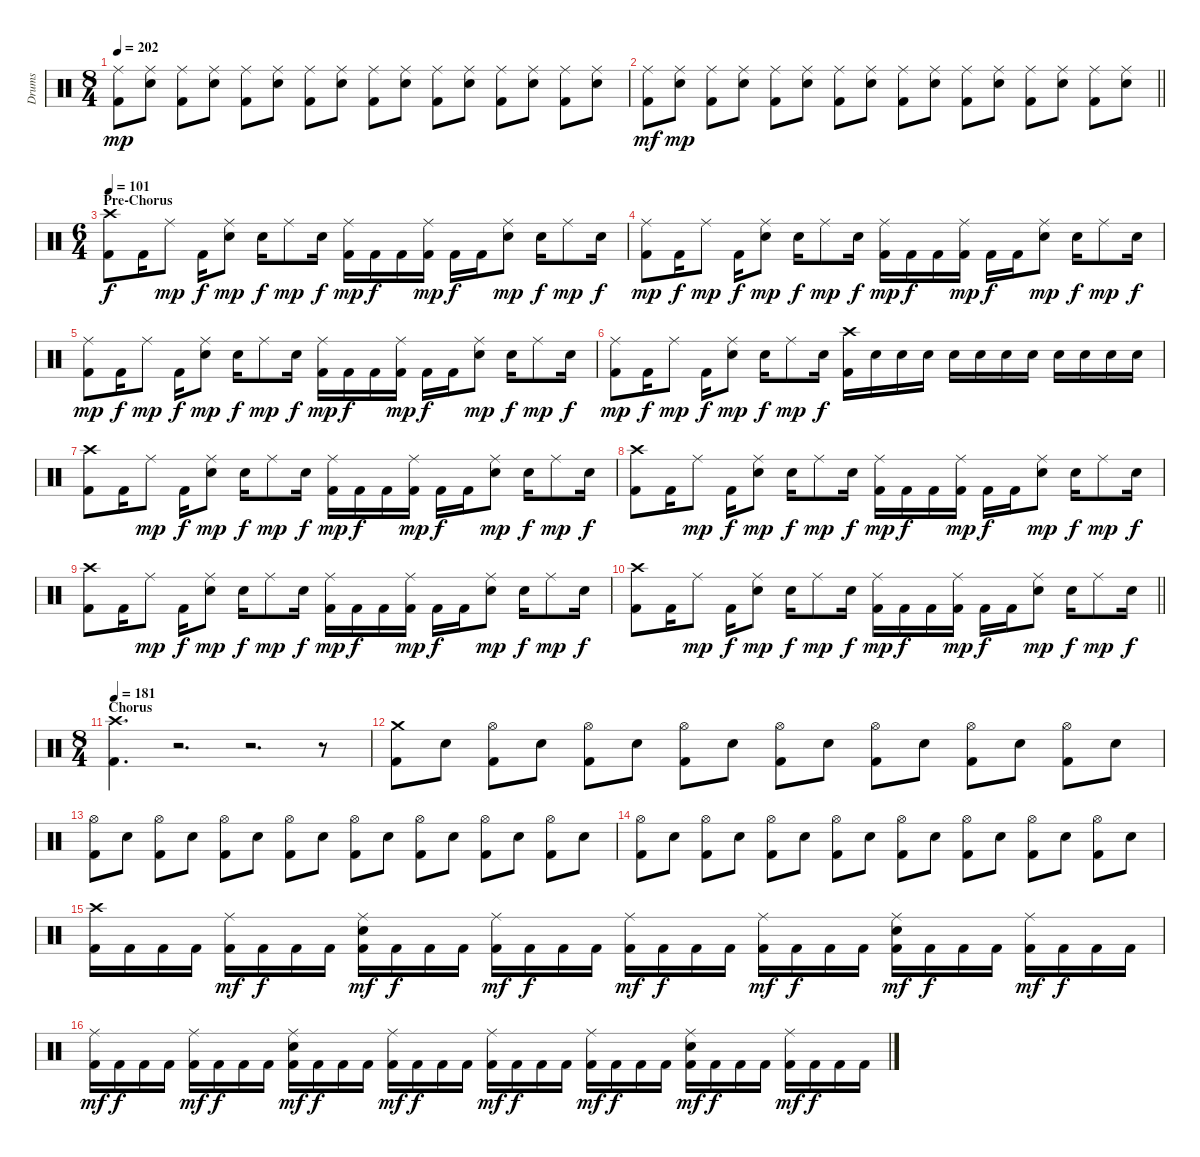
\track ("Drums" "Drums") {instrument percussion}
\staff {score}
\articulation defaults
\ts (8 4)
\tempo 202
\clef neutral
\ks c
("Ride (middle)" "Kick (hit) 2").8{dy mp} ("Ride (middle)" "Snare (hit) 2").8 ("Ride (middle)" "Kick (hit) 2").8 ("Ride (middle)" "Snare (hit) 2").8 ("Ride (middle)" "Kick (hit) 2").8 ("Ride (middle)" "Snare (hit) 2").8 ("Ride (middle)" "Kick (hit) 2").8 ("Ride (middle)" "Snare (hit) 2").8 ("Ride (middle)" "Kick (hit) 2").8 ("Ride (middle)" "Snare (hit) 2").8 ("Ride (middle)" "Kick (hit) 2").8 ("Ride (middle)" "Snare (hit) 2").8 ("Ride (middle)" "Kick (hit) 2").8 ("Ride (middle)" "Snare (hit) 2").8 ("Ride (middle)" "Kick (hit) 2").8 ("Ride (middle)" "Snare (hit) 2").8 |
\barLineRight lightlight
("Ride (middle)" "Kick (hit) 2").8{dy mf} ("Ride (middle)" "Snare (hit) 2").8{dy mp} ("Ride (middle)" "Kick (hit) 2").8 ("Ride (middle)" "Snare (hit) 2").8 ("Ride (middle)" "Kick (hit) 2").8 ("Ride (middle)" "Snare (hit) 2").8 ("Ride (middle)" "Kick (hit) 2").8 ("Ride (middle)" "Snare (hit) 2").8 ("Ride (middle)" "Kick (hit) 2").8 ("Ride (middle)" "Snare (hit) 2").8 ("Ride (middle)" "Kick (hit) 2").8 ("Ride (middle)" "Snare (hit) 2").8 ("Ride (middle)" "Kick (hit) 2").8 ("Ride (middle)" "Snare (hit) 2").8 ("Ride (middle)" "Kick (hit) 2").8 ("Ride (middle)" "Snare (hit) 2").8 |
\ts (6 4)
\section ("" "Pre-Chorus")
\tempo 101
("Crash high (hit)" "Kick (hit) 2").8{dy f} "Kick (hit) 2".16 "Ride (middle)".8{dy mp} "Kick (hit) 2".16{dy f} ("Ride (middle)" "Snare (hit) 2").8{dy mp} "Snare (hit) 2".16{dy f} "Ride (middle)".8{dy mp} "Snare (hit) 2".16{dy f} ("Ride (middle)" "Kick (hit) 2").16{dy mp} "Kick (hit) 2".16{dy f} "Kick (hit) 2".16 ("Ride (middle)" "Kick (hit) 2").16{dy mp} "Kick (hit) 2".16{dy f} "Kick (hit) 2".16 ("Ride (middle)" "Snare (hit) 2").8{dy mp} "Snare (hit) 2".16{dy f} "Ride (middle)".8{dy mp} "Snare (hit) 2".16{dy f} |
("Ride (middle)" "Kick (hit) 2").8{dy mp} "Kick (hit) 2".16{dy f} "Ride (middle)".8{dy mp} "Kick (hit) 2".16{dy f} ("Ride (middle)" "Snare (hit) 2").8{dy mp} "Snare (hit) 2".16{dy f} "Ride (middle)".8{dy mp} "Snare (hit) 2".16{dy f} ("Ride (middle)" "Kick (hit) 2").16{dy mp} "Kick (hit) 2".16{dy f} "Kick (hit) 2".16 ("Ride (middle)" "Kick (hit) 2").16{dy mp} "Kick (hit) 2".16{dy f} "Kick (hit) 2".16 ("Ride (middle)" "Snare (hit) 2").8{dy mp} "Snare (hit) 2".16{dy f} "Ride (middle)".8{dy mp} "Snare (hit) 2".16{dy f} |
("Ride (middle)" "Kick (hit) 2").8{dy mp} "Kick (hit) 2".16{dy f} "Ride (middle)".8{dy mp} "Kick (hit) 2".16{dy f} ("Ride (middle)" "Snare (hit) 2").8{dy mp} "Snare (hit) 2".16{dy f} "Ride (middle)".8{dy mp} "Snare (hit) 2".16{dy f} ("Ride (middle)" "Kick (hit) 2").16{dy mp} "Kick (hit) 2".16{dy f} "Kick (hit) 2".16 ("Ride (middle)" "Kick (hit) 2").16{dy mp} "Kick (hit) 2".16{dy f} "Kick (hit) 2".16 ("Ride (middle)" "Snare (hit) 2").8{dy mp} "Snare (hit) 2".16{dy f} "Ride (middle)".8{dy mp} "Snare (hit) 2".16{dy f} |
("Ride (middle)" "Kick (hit) 2").8{dy mp} "Kick (hit) 2".16{dy f} "Ride (middle)".8{dy mp} "Kick (hit) 2".16{dy f} ("Ride (middle)" "Snare (hit) 2").8{dy mp} "Snare (hit) 2".16{dy f} "Ride (middle)".8{dy mp} "Snare (hit) 2".16{dy f} ("Crash high (hit)" "Kick (hit) 2").16 "Snare (hit) 2".16 "Snare (hit) 2".16 "Snare (hit) 2".16 "Snare (hit) 2".16 "Snare (hit) 2".16 "Snare (hit) 2".16 "Snare (hit) 2".16 "Snare (hit) 2".16 "Snare (hit) 2".16 "Snare (hit) 2".16 "Snare (hit) 2".16 |
("Crash high (hit)" "Kick (hit) 2").8 "Kick (hit) 2".16 "Ride (middle)".8{dy mp} "Kick (hit) 2".16{dy f} ("Ride (middle)" "Snare (hit) 2").8{dy mp} "Snare (hit) 2".16{dy f} "Ride (middle)".8{dy mp} "Snare (hit) 2".16{dy f} ("Ride (middle)" "Kick (hit) 2").16{dy mp} "Kick (hit) 2".16{dy f} "Kick (hit) 2".16 ("Ride (middle)" "Kick (hit) 2").16{dy mp} "Kick (hit) 2".16{dy f} "Kick (hit) 2".16 ("Ride (middle)" "Snare (hit) 2").8{dy mp} "Snare (hit) 2".16{dy f} "Ride (middle)".8{dy mp} "Snare (hit) 2".16{dy f} |
("Crash high (hit)" "Kick (hit) 2").8 "Kick (hit) 2".16 "Ride (middle)".8{dy mp} "Kick (hit) 2".16{dy f} ("Ride (middle)" "Snare (hit) 2").8{dy mp} "Snare (hit) 2".16{dy f} "Ride (middle)".8{dy mp} "Snare (hit) 2".16{dy f} ("Ride (middle)" "Kick (hit) 2").16{dy mp} "Kick (hit) 2".16{dy f} "Kick (hit) 2".16 ("Ride (middle)" "Kick (hit) 2").16{dy mp} "Kick (hit) 2".16{dy f} "Kick (hit) 2".16 ("Ride (middle)" "Snare (hit) 2").8{dy mp} "Snare (hit) 2".16{dy f} "Ride (middle)".8{dy mp} "Snare (hit) 2".16{dy f} |
("Crash high (hit)" "Kick (hit) 2").8 "Kick (hit) 2".16 "Ride (middle)".8{dy mp} "Kick (hit) 2".16{dy f} ("Ride (middle)" "Snare (hit) 2").8{dy mp} "Snare (hit) 2".16{dy f} "Ride (middle)".8{dy mp} "Snare (hit) 2".16{dy f} ("Ride (middle)" "Kick (hit) 2").16{dy mp} "Kick (hit) 2".16{dy f} "Kick (hit) 2".16 ("Ride (middle)" "Kick (hit) 2").16{dy mp} "Kick (hit) 2".16{dy f} "Kick (hit) 2".16 ("Ride (middle)" "Snare (hit) 2").8{dy mp} "Snare (hit) 2".16{dy f} "Ride (middle)".8{dy mp} "Snare (hit) 2".16{dy f} |
\barLineRight lightlight
("Crash high (hit)" "Kick (hit) 2").8 "Kick (hit) 2".16 "Ride (middle)".8{dy mp} "Kick (hit) 2".16{dy f} ("Ride (middle)" "Snare (hit) 2").8{dy mp} "Snare (hit) 2".16{dy f} "Ride (middle)".8{dy mp} "Snare (hit) 2".16{dy f} ("Ride (middle)" "Kick (hit) 2").16{dy mp} "Kick (hit) 2".16{dy f} "Kick (hit) 2".16 ("Ride (middle)" "Kick (hit) 2").16{dy mp} "Kick (hit) 2".16{dy f} "Kick (hit) 2".16 ("Ride (middle)" "Snare (hit) 2").8{dy mp} "Snare (hit) 2".16{dy f} "Ride (middle)".8{dy mp} "Snare (hit) 2".16{dy f} |
\ts (8 4)
\section ("" "Chorus")
\tempo 181
("Crash high (hit)" "Kick (hit) 2").4{d} r.2{d} r.2{d} r.8 |
("Crash medium (hit)" "Kick (hit) 2").8 "Snare (hit) 2".8 ("Hi-Hat (open)" "Kick (hit) 2").8 "Snare (hit) 2".8 ("Hi-Hat (open)" "Kick (hit) 2").8 "Snare (hit) 2".8 ("Hi-Hat (open)" "Kick (hit) 2").8 "Snare (hit) 2".8 ("Hi-Hat (open)" "Kick (hit) 2").8 "Snare (hit) 2".8 ("Hi-Hat (open)" "Kick (hit) 2").8 "Snare (hit) 2".8 ("Hi-Hat (open)" "Kick (hit) 2").8 "Snare (hit) 2".8 ("Hi-Hat (open)" "Kick (hit) 2").8 "Snare (hit) 2".8 |
("Hi-Hat (open)" "Kick (hit) 2").8 "Snare (hit) 2".8 ("Hi-Hat (open)" "Kick (hit) 2").8 "Snare (hit) 2".8 ("Hi-Hat (open)" "Kick (hit) 2").8 "Snare (hit) 2".8 ("Hi-Hat (open)" "Kick (hit) 2").8 "Snare (hit) 2".8 ("Hi-Hat (open)" "Kick (hit) 2").8 "Snare (hit) 2".8 ("Hi-Hat (open)" "Kick (hit) 2").8 "Snare (hit) 2".8 ("Hi-Hat (open)" "Kick (hit) 2").8 "Snare (hit) 2".8 ("Hi-Hat (open)" "Kick (hit) 2").8 "Snare (hit) 2".8 |
("Hi-Hat (open)" "Kick (hit) 2").8 "Snare (hit) 2".8 ("Hi-Hat (open)" "Kick (hit) 2").8 "Snare (hit) 2".8 ("Hi-Hat (open)" "Kick (hit) 2").8 "Snare (hit) 2".8 ("Hi-Hat (open)" "Kick (hit) 2").8 "Snare (hit) 2".8 ("Hi-Hat (open)" "Kick (hit) 2").8 "Snare (hit) 2".8 ("Hi-Hat (open)" "Kick (hit) 2").8 "Snare (hit) 2".8 ("Hi-Hat (open)" "Kick (hit) 2").8 "Snare (hit) 2".8 ("Hi-Hat (open)" "Kick (hit) 2").8 "Snare (hit) 2".8 |
("Crash high (hit)" "Kick (hit) 2").16 "Kick (hit) 2".16 "Kick (hit) 2".16 "Kick (hit) 2".16 ("Ride (middle)" "Kick (hit) 2").16{dy mf} "Kick (hit) 2".16{dy f} "Kick (hit) 2".16 "Kick (hit) 2".16 ("Ride (middle)" "Snare (hit) 2" "Kick (hit) 2").16{dy mf} "Kick (hit) 2".16{dy f} "Kick (hit) 2".16 "Kick (hit) 2".16 ("Ride (middle)" "Kick (hit) 2").16{dy mf} "Kick (hit) 2".16{dy f} "Kick (hit) 2".16 "Kick (hit) 2".16 ("Ride (middle)" "Kick (hit) 2").16{dy mf} "Kick (hit) 2".16{dy f} "Kick (hit) 2".16 "Kick (hit) 2".16 ("Ride (middle)" "Kick (hit) 2").16{dy mf} "Kick (hit) 2".16{dy f} "Kick (hit) 2".16 "Kick (hit) 2".16 ("Ride (middle)" "Snare (hit) 2" "Kick (hit) 2").16{dy mf} "Kick (hit) 2".16{dy f} "Kick (hit) 2".16 "Kick (hit) 2".16 ("Ride (middle)" "Kick (hit) 2").16{dy mf} "Kick (hit) 2".16{dy f} "Kick (hit) 2".16 "Kick (hit) 2".16 |
("Ride (middle)" "Kick (hit) 2").16{dy mf} "Kick (hit) 2".16{dy f} "Kick (hit) 2".16 "Kick (hit) 2".16 ("Ride (middle)" "Kick (hit) 2").16{dy mf} "Kick (hit) 2".16{dy f} "Kick (hit) 2".16 "Kick (hit) 2".16 ("Ride (middle)" "Snare (hit) 2" "Kick (hit) 2").16{dy mf} "Kick (hit) 2".16{dy f} "Kick (hit) 2".16 "Kick (hit) 2".16 ("Ride (middle)" "Kick (hit) 2").16{dy mf} "Kick (hit) 2".16{dy f} "Kick (hit) 2".16 "Kick (hit) 2".16 ("Ride (middle)" "Kick (hit) 2").16{dy mf} "Kick (hit) 2".16{dy f} "Kick (hit) 2".16 "Kick (hit) 2".16 ("Ride (middle)" "Kick (hit) 2").16{dy mf} "Kick (hit) 2".16{dy f} "Kick (hit) 2".16 "Kick (hit) 2".16 ("Ride (middle)" "Snare (hit) 2" "Kick (hit) 2").16{dy mf} "Kick (hit) 2".16{dy f} "Kick (hit) 2".16 "Kick (hit) 2".16 ("Ride (middle)" "Kick (hit) 2").16{dy mf} "Kick (hit) 2".16{dy f} "Kick (hit) 2".16 "Kick (hit) 2".16
